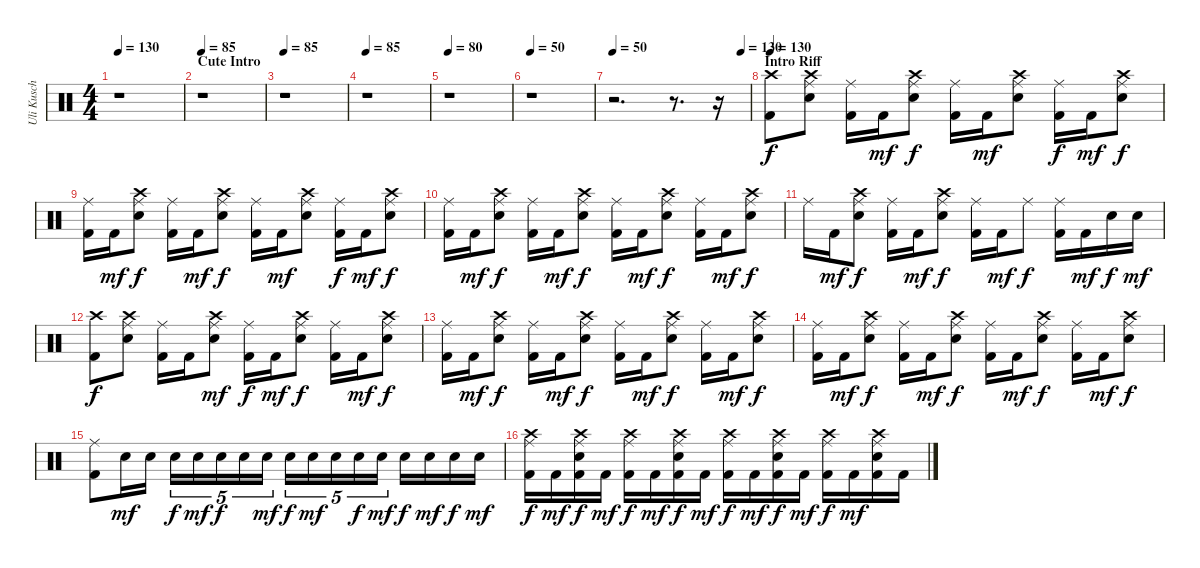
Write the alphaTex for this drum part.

\track ("Uli Kusch" "Uli Kusch") {instrument percussion}
\staff {score}
\articulation defaults
\ts (4 4)
\tempo 130
\clef neutral
\ks c
r.1{dy f} |
\section ("" "Cute Intro")
\tempo 85
r.1 |
\tempo 85
r.1 |
\tempo 85
r.1 |
\tempo 80
r.1 |
\tempo 50
r.1 |
\tempo 50
\tempo (130 0.9375)
r.2{d} r.8{d} r.16 |
\section ("" "Intro Riff")
\tempo 130
("Crash high (hit)" "Kick (hit) 2").8 ("Ride (middle)" "Crash high (hit)" "Electric Snare (hit)").8 ("Ride (middle)" "Kick (hit) 2").16 "Kick (hit) 2".16{dy mf} ("Ride (middle)" "Crash high (hit)" "Electric Snare (hit)").8{dy f} ("Ride (middle)" "Kick (hit) 2").16 "Kick (hit) 2".16{dy mf} ("Ride (middle)" "Crash high (hit)" "Electric Snare (hit)").8 ("Ride (middle)" "Kick (hit) 2").16{dy f} "Kick (hit) 2".16{dy mf} ("Ride (middle)" "Crash high (hit)" "Electric Snare (hit)").8{dy f} |
("Kick (hit) 2" "Ride (middle)").16 "Kick (hit) 2".16{dy mf} ("Ride (middle)" "Crash high (hit)" "Electric Snare (hit)").8{dy f} ("Kick (hit) 2" "Ride (middle)").16 "Kick (hit) 2".16{dy mf} ("Ride (middle)" "Crash high (hit)" "Electric Snare (hit)").8{dy f} ("Kick (hit) 2" "Ride (middle)").16 "Kick (hit) 2".16{dy mf} ("Ride (middle)" "Crash high (hit)" "Electric Snare (hit)").8 ("Kick (hit) 2" "Ride (middle)").16{dy f} "Kick (hit) 2".16{dy mf} ("Ride (middle)" "Crash high (hit)" "Electric Snare (hit)").8{dy f} |
("Kick (hit) 2" "Ride (middle)").16 "Kick (hit) 2".16{dy mf} ("Ride (middle)" "Crash high (hit)" "Electric Snare (hit)").8{dy f} ("Kick (hit) 2" "Ride (middle)").16 "Kick (hit) 2".16{dy mf} ("Ride (middle)" "Crash high (hit)" "Electric Snare (hit)").8{dy f} ("Kick (hit) 2" "Ride (middle)").16 "Kick (hit) 2".16{dy mf} ("Ride (middle)" "Crash high (hit)" "Electric Snare (hit)").8{dy f} ("Kick (hit) 2" "Ride (middle)").16 "Kick (hit) 2".16{dy mf} ("Ride (middle)" "Crash high (hit)" "Electric Snare (hit)").8{dy f} |
"Ride (middle)".16 "Kick (hit) 2".16{dy mf} ("Ride (middle)" "Crash high (hit)" "Electric Snare (hit)").8{dy f} ("Kick (hit) 2" "Ride (middle)").16 "Kick (hit) 2".16{dy mf} ("Ride (middle)" "Crash high (hit)" "Electric Snare (hit)").8{dy f} ("Kick (hit) 2" "Ride (middle)").16 "Kick (hit) 2".16{dy mf} "Ride (middle)".8{dy f} ("Kick (hit) 2" "Ride (middle)").16 "Kick (hit) 2".16{dy mf} "Electric Snare (hit)".16{dy f} "Electric Snare (hit)".16{dy mf} |
("Crash high (hit)" "Kick (hit) 2").8{dy f} ("Ride (middle)" "Crash high (hit)" "Electric Snare (hit)").8 ("Ride (middle)" "Kick (hit) 2").16 "Kick (hit) 2".16 ("Ride (middle)" "Crash high (hit)" "Electric Snare (hit)").8{dy mf} ("Ride (middle)" "Kick (hit) 2").16{dy f} "Kick (hit) 2".16{dy mf} ("Ride (middle)" "Crash high (hit)" "Electric Snare (hit)").8{dy f} ("Ride (middle)" "Kick (hit) 2").16 "Kick (hit) 2".16{dy mf} ("Ride (middle)" "Crash high (hit)" "Electric Snare (hit)").8{dy f} |
("Kick (hit) 2" "Ride (middle)").16 "Kick (hit) 2".16{dy mf} ("Ride (middle)" "Crash high (hit)" "Electric Snare (hit)").8{dy f} ("Kick (hit) 2" "Ride (middle)").16 "Kick (hit) 2".16{dy mf} ("Ride (middle)" "Crash high (hit)" "Electric Snare (hit)").8{dy f} ("Kick (hit) 2" "Ride (middle)").16 "Kick (hit) 2".16{dy mf} ("Ride (middle)" "Crash high (hit)" "Electric Snare (hit)").8{dy f} ("Kick (hit) 2" "Ride (middle)").16 "Kick (hit) 2".16{dy mf} ("Ride (middle)" "Crash high (hit)" "Electric Snare (hit)").8{dy f} |
("Kick (hit) 2" "Ride (middle)").16 "Kick (hit) 2".16{dy mf} ("Ride (middle)" "Crash high (hit)" "Electric Snare (hit)").8{dy f} ("Kick (hit) 2" "Ride (middle)").16 "Kick (hit) 2".16{dy mf} ("Ride (middle)" "Crash high (hit)" "Electric Snare (hit)").8{dy f} ("Kick (hit) 2" "Ride (middle)").16 "Kick (hit) 2".16{dy mf} ("Ride (middle)" "Crash high (hit)" "Electric Snare (hit)").8{dy f} ("Kick (hit) 2" "Ride (middle)").16 "Kick (hit) 2".16{dy mf} ("Ride (middle)" "Crash high (hit)" "Electric Snare (hit)").8{dy f} |
("Kick (hit) 2" "Ride (middle)").8 "Electric Snare (hit)".16{dy mf} "Electric Snare (hit)".16 "Electric Snare (hit)".16{tu (5 4) dy f} "Electric Snare (hit)".16{tu (5 4) dy mf} "Electric Snare (hit)".16{tu (5 4) dy f} "Electric Snare (hit)".16{tu (5 4)} "Electric Snare (hit)".16{tu (5 4) dy mf} "Electric Snare (hit)".16{tu (5 4) dy f} "Electric Snare (hit)".16{tu (5 4) dy mf} "Electric Snare (hit)".16{tu (5 4)} "Electric Snare (hit)".16{tu (5 4) dy f} "Electric Snare (hit)".16{tu (5 4) dy mf} "Electric Snare (hit)".16{dy f} "Electric Snare (hit)".16{dy mf} "Electric Snare (hit)".16{dy f} "Electric Snare (hit)".16{dy mf} |
("Kick (hit) 2" "Crash high (hit)" "Ride (middle)").16{dy f} "Kick (hit) 2".16{dy mf} ("Ride (middle)" "Kick (hit) 2" "Crash high (hit)" "Snare (hit) 2").16{dy f} "Kick (hit) 2".16{dy mf} ("Kick (hit) 2" "Crash high (hit)" "Ride (middle)").16{dy f} "Kick (hit) 2".16{dy mf} ("Ride (middle)" "Snare (hit) 2" "Crash high (hit)" "Kick (hit) 2").16{dy f} "Kick (hit) 2".16{dy mf} ("Kick (hit) 2" "Crash high (hit)" "Ride (middle)").16{dy f} "Kick (hit) 2".16{dy mf} ("Ride (middle)" "Snare (hit) 2" "Crash high (hit)" "Kick (hit) 2").16{dy f} "Kick (hit) 2".16{dy mf} ("Kick (hit) 2" "Crash high (hit)" "Ride (middle)").16{dy f} "Kick (hit) 2".16{dy mf} ("Ride (middle)" "Snare (hit) 2" "Crash high (hit)" "Kick (hit) 2").16 "Kick (hit) 2".16
